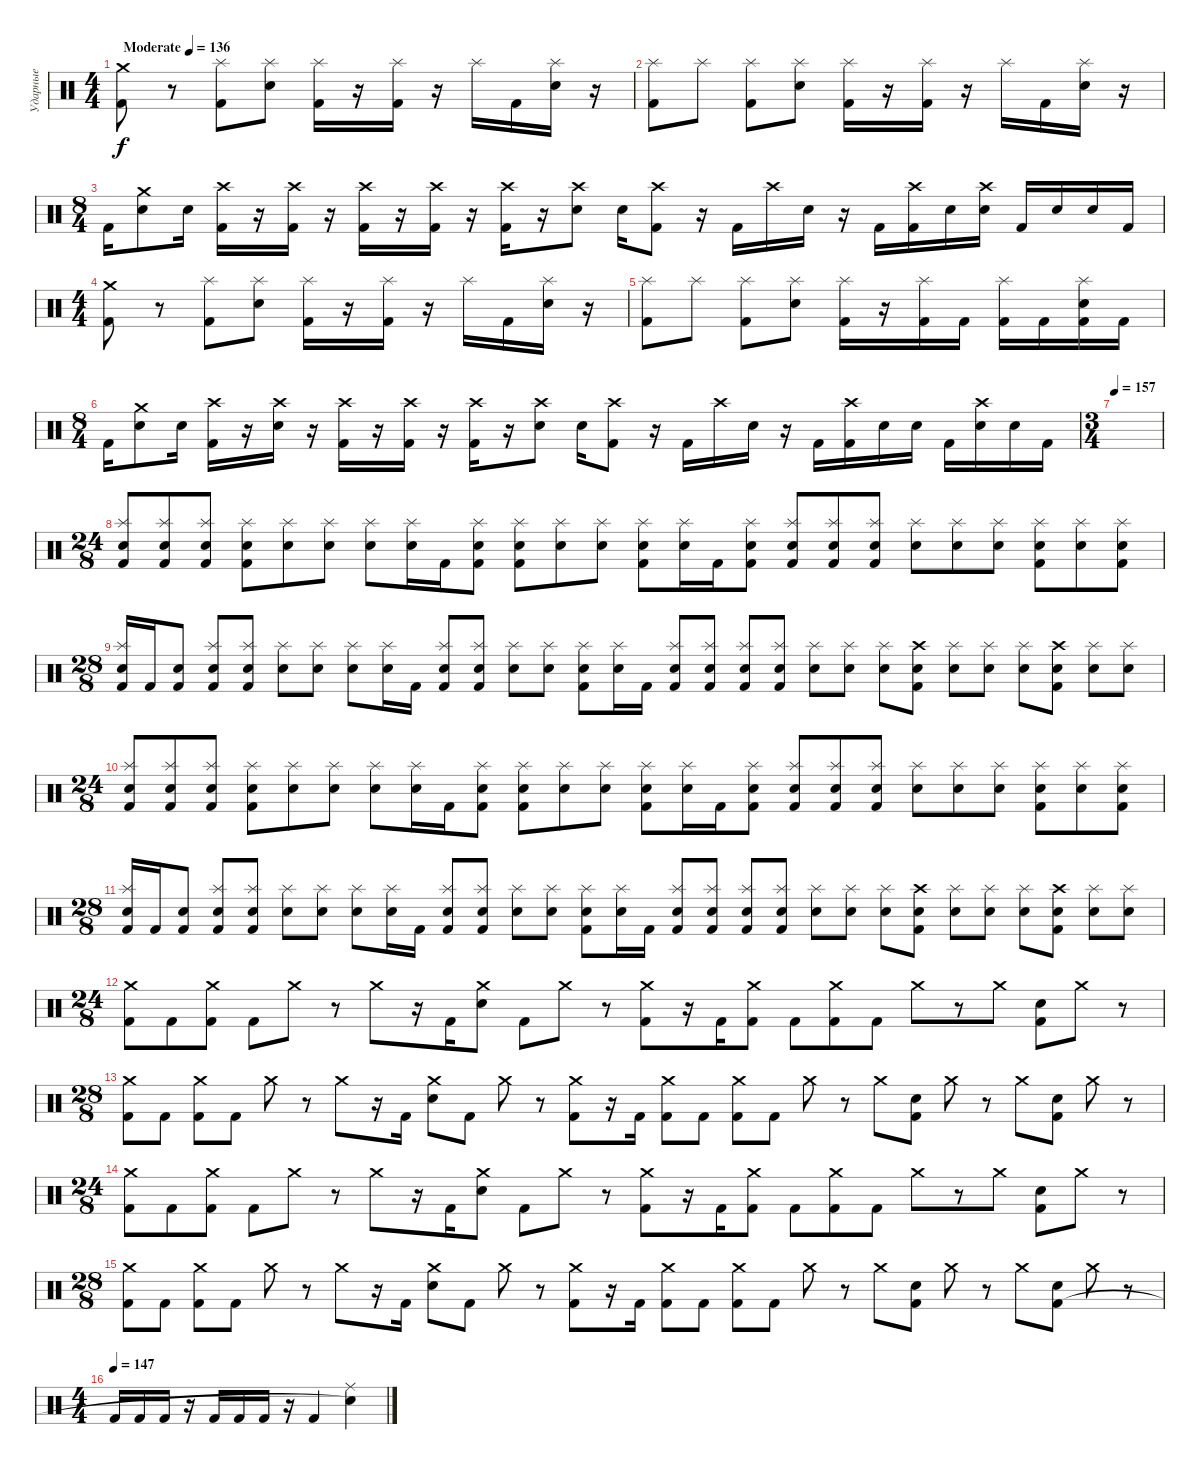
\track ("Ударные" "Ударные") {instrument percussion}
\staff {score}
\articulation defaults
\ts (4 4)
\tempo (136 "Moderate")
\clef neutral
\ks c
("Crash medium (hit)" "Kick (hit) 2").8{dy f} r.8 ("Splash (hit)" "Kick (hit) 2").8 ("Splash (hit)" "Electric Snare (hit)").8 ("Splash (hit)" "Kick (hit) 2").16 r.16 ("Splash (hit)" "Kick (hit) 2").16 r.16 "Splash (hit)".16 "Kick (hit) 2".16 ("Splash (hit)" "Electric Snare (hit)").16 r.16 |
("Splash (hit)" "Kick (hit) 2").8 "Splash (hit)".8 ("Splash (hit)" "Kick (hit) 2").8 ("Splash (hit)" "Electric Snare (hit)").8 ("Splash (hit)" "Kick (hit) 2").16 r.16 ("Splash (hit)" "Kick (hit) 2").16 r.16 "Splash (hit)".16 "Kick (hit) 2".16 ("Splash (hit)" "Electric Snare (hit)").16 r.16 |
\ts (8 4)
"Kick (hit) 2".16 ("Crash medium (hit)" "Electric Snare (hit)").8 "Electric Snare (hit)".16 ("Crash high (hit)" "Kick (hit) 2").16 r.16 ("Crash high (hit)" "Kick (hit) 2").16 r.16 ("Crash high (hit)" "Kick (hit) 2").16 r.16 ("Crash high (hit)" "Kick (hit) 2").16 r.16 ("Crash high (hit)" "Kick (hit) 2").16 r.16 ("Crash high (hit)" "Electric Snare (hit)").8 "Electric Snare (hit)".16 ("Crash high (hit)" "Kick (hit) 2").8 r.16 "Kick (hit) 2".16 "Crash high (hit)".16 "Electric Snare (hit)".16 r.16 "Kick (hit) 2".16 ("Crash high (hit)" "Kick (hit) 2").16 "Electric Snare (hit)".16 ("Crash high (hit)" "Electric Snare (hit)").16 "Kick (hit) 2".16 "Electric Snare (hit)".16 "Electric Snare (hit)".16 "Kick (hit) 2".16 |
\ts (4 4)
("Crash medium (hit)" "Kick (hit) 2").8 r.8 ("Splash (hit)" "Kick (hit) 2").8 ("Splash (hit)" "Electric Snare (hit)").8 ("Splash (hit)" "Kick (hit) 2").16 r.16 ("Splash (hit)" "Kick (hit) 2").16 r.16 "Splash (hit)".16 "Kick (hit) 2".16 ("Splash (hit)" "Electric Snare (hit)").16 r.16 |
("Splash (hit)" "Kick (hit) 2").8 "Splash (hit)".8 ("Splash (hit)" "Kick (hit) 2").8 ("Splash (hit)" "Electric Snare (hit)").8 ("Splash (hit)" "Kick (hit) 2").16 r.16 ("Splash (hit)" "Kick (hit) 2").16 "Kick (hit) 2".16 ("Splash (hit)" "Kick (hit) 2").16 "Kick (hit) 2".16 ("Splash (hit)" "Electric Snare (hit)" "Kick (hit) 2").16 "Kick (hit) 2".16 |
\ts (8 4)
"Kick (hit) 2".16 ("Crash medium (hit)" "Electric Snare (hit)").8 "Electric Snare (hit)".16 ("Crash high (hit)" "Kick (hit) 2").16 r.16 ("Crash high (hit)" "Electric Snare (hit)").16 r.16 ("Crash high (hit)" "Kick (hit) 2").16 r.16 ("Crash high (hit)" "Kick (hit) 2").16 r.16 ("Crash high (hit)" "Kick (hit) 2").16 r.16 ("Crash high (hit)" "Electric Snare (hit)").8 "Electric Snare (hit)".16 ("Crash high (hit)" "Kick (hit) 2").8 r.16 "Kick (hit) 2".16 "Crash high (hit)".16 "Electric Snare (hit)".16 r.16 "Kick (hit) 2".16 ("Crash high (hit)" "Kick (hit) 2").16 "Electric Snare (hit)".16 "Electric Snare (hit)".16 "Kick (hit) 2".16 ("Crash high (hit)" "Electric Snare (hit)").16 "Electric Snare (hit)".16 "Kick (hit) 2".16 |
\ts (3 4)
\tempo 157
|
\ts (24 8)
("Splash (hit)" "Electric Snare (hit)" "Kick (hit) 2").8 ("Splash (hit)" "Electric Snare (hit)" "Kick (hit) 2").8 ("Splash (hit)" "Electric Snare (hit)" "Kick (hit) 2").8 ("Splash (hit)" "Electric Snare (hit)" "Kick (hit) 2").8 ("Splash (hit)" "Electric Snare (hit)").8 ("Splash (hit)" "Electric Snare (hit)").8 ("Splash (hit)" "Electric Snare (hit)").8 ("Splash (hit)" "Electric Snare (hit)").16 "Kick (hit) 2".16 ("Splash (hit)" "Electric Snare (hit)" "Kick (hit) 2").8 ("Splash (hit)" "Electric Snare (hit)" "Kick (hit) 2").8 ("Splash (hit)" "Electric Snare (hit)").8 ("Splash (hit)" "Electric Snare (hit)").8 ("Splash (hit)" "Electric Snare (hit)" "Kick (hit) 2").8 ("Splash (hit)" "Electric Snare (hit)").16 "Kick (hit) 2".16 ("Splash (hit)" "Electric Snare (hit)" "Kick (hit) 2").8 ("Splash (hit)" "Electric Snare (hit)" "Kick (hit) 2").8 ("Splash (hit)" "Electric Snare (hit)" "Kick (hit) 2").8 ("Splash (hit)" "Electric Snare (hit)" "Kick (hit) 2").8 ("Splash (hit)" "Electric Snare (hit)").8 ("Splash (hit)" "Electric Snare (hit)").8 ("Splash (hit)" "Electric Snare (hit)").8 ("Splash (hit)" "Electric Snare (hit)" "Kick (hit) 2").8 ("Splash (hit)" "Electric Snare (hit)").8 ("Splash (hit)" "Electric Snare (hit)" "Kick (hit) 2").8 |
\ts (28 8)
("Splash (hit)" "Electric Snare (hit)" "Kick (hit) 2").16 "Kick (hit) 2".16 ("Electric Snare (hit)" "Kick (hit) 2").8 ("Splash (hit)" "Electric Snare (hit)" "Kick (hit) 2").8 ("Splash (hit)" "Electric Snare (hit)" "Kick (hit) 2").8 ("Splash (hit)" "Electric Snare (hit)").8 ("Splash (hit)" "Electric Snare (hit)").8 ("Splash (hit)" "Electric Snare (hit)").8 ("Splash (hit)" "Electric Snare (hit)").16 "Kick (hit) 2".16 ("Splash (hit)" "Electric Snare (hit)" "Kick (hit) 2").8 ("Splash (hit)" "Electric Snare (hit)" "Kick (hit) 2").8 ("Splash (hit)" "Electric Snare (hit)").8 ("Splash (hit)" "Electric Snare (hit)").8 ("Splash (hit)" "Electric Snare (hit)" "Kick (hit) 2").8 ("Splash (hit)" "Electric Snare (hit)").16 "Kick (hit) 2".16 ("Splash (hit)" "Electric Snare (hit)" "Kick (hit) 2").8 ("Splash (hit)" "Electric Snare (hit)" "Kick (hit) 2").8 ("Splash (hit)" "Electric Snare (hit)" "Kick (hit) 2").8 ("Splash (hit)" "Electric Snare (hit)" "Kick (hit) 2").8 ("Splash (hit)" "Electric Snare (hit)").8 ("Splash (hit)" "Electric Snare (hit)").8 ("Splash (hit)" "Electric Snare (hit)").8 ("Crash high (hit)" "Electric Snare (hit)" "Kick (hit) 2").8 ("Splash (hit)" "Electric Snare (hit)").8 ("Splash (hit)" "Electric Snare (hit)").8 ("Splash (hit)" "Electric Snare (hit)").8 ("Crash high (hit)" "Electric Snare (hit)" "Kick (hit) 2").8 ("Splash (hit)" "Electric Snare (hit)").8 ("Splash (hit)" "Electric Snare (hit)").8 |
\ts (24 8)
("Splash (hit)" "Electric Snare (hit)" "Kick (hit) 2").8 ("Splash (hit)" "Electric Snare (hit)" "Kick (hit) 2").8 ("Splash (hit)" "Electric Snare (hit)" "Kick (hit) 2").8 ("Splash (hit)" "Electric Snare (hit)" "Kick (hit) 2").8 ("Splash (hit)" "Electric Snare (hit)").8 ("Splash (hit)" "Electric Snare (hit)").8 ("Splash (hit)" "Electric Snare (hit)").8 ("Splash (hit)" "Electric Snare (hit)").16 "Kick (hit) 2".16 ("Splash (hit)" "Electric Snare (hit)" "Kick (hit) 2").8 ("Splash (hit)" "Electric Snare (hit)" "Kick (hit) 2").8 ("Splash (hit)" "Electric Snare (hit)").8 ("Splash (hit)" "Electric Snare (hit)").8 ("Splash (hit)" "Electric Snare (hit)" "Kick (hit) 2").8 ("Splash (hit)" "Electric Snare (hit)").16 "Kick (hit) 2".16 ("Splash (hit)" "Electric Snare (hit)" "Kick (hit) 2").8 ("Splash (hit)" "Electric Snare (hit)" "Kick (hit) 2").8 ("Splash (hit)" "Electric Snare (hit)" "Kick (hit) 2").8 ("Splash (hit)" "Electric Snare (hit)" "Kick (hit) 2").8 ("Splash (hit)" "Electric Snare (hit)").8 ("Splash (hit)" "Electric Snare (hit)").8 ("Splash (hit)" "Electric Snare (hit)").8 ("Splash (hit)" "Electric Snare (hit)" "Kick (hit) 2").8 ("Splash (hit)" "Electric Snare (hit)").8 ("Splash (hit)" "Electric Snare (hit)" "Kick (hit) 2").8 |
\ts (28 8)
("Splash (hit)" "Electric Snare (hit)" "Kick (hit) 2").16 "Kick (hit) 2".16 ("Electric Snare (hit)" "Kick (hit) 2").8 ("Splash (hit)" "Electric Snare (hit)" "Kick (hit) 2").8 ("Splash (hit)" "Electric Snare (hit)" "Kick (hit) 2").8 ("Splash (hit)" "Electric Snare (hit)").8 ("Splash (hit)" "Electric Snare (hit)").8 ("Splash (hit)" "Electric Snare (hit)").8 ("Splash (hit)" "Electric Snare (hit)").16 "Kick (hit) 2".16 ("Splash (hit)" "Electric Snare (hit)" "Kick (hit) 2").8 ("Splash (hit)" "Electric Snare (hit)" "Kick (hit) 2").8 ("Splash (hit)" "Electric Snare (hit)").8 ("Splash (hit)" "Electric Snare (hit)").8 ("Splash (hit)" "Electric Snare (hit)" "Kick (hit) 2").8 ("Splash (hit)" "Electric Snare (hit)").16 "Kick (hit) 2".16 ("Splash (hit)" "Electric Snare (hit)" "Kick (hit) 2").8 ("Splash (hit)" "Electric Snare (hit)" "Kick (hit) 2").8 ("Splash (hit)" "Electric Snare (hit)" "Kick (hit) 2").8 ("Splash (hit)" "Electric Snare (hit)" "Kick (hit) 2").8 ("Splash (hit)" "Electric Snare (hit)").8 ("Splash (hit)" "Electric Snare (hit)").8 ("Splash (hit)" "Electric Snare (hit)").8 ("Crash high (hit)" "Electric Snare (hit)" "Kick (hit) 2").8 ("Splash (hit)" "Electric Snare (hit)").8 ("Splash (hit)" "Electric Snare (hit)").8 ("Splash (hit)" "Electric Snare (hit)").8 ("Crash high (hit)" "Electric Snare (hit)" "Kick (hit) 2").8 ("Splash (hit)" "Electric Snare (hit)").8 ("Splash (hit)" "Electric Snare (hit)").8 |
\ts (24 8)
("Crash medium (hit)" "Kick (hit) 2").8 "Kick (hit) 2".8 ("Crash medium (hit)" "Kick (hit) 2").8 "Kick (hit) 2".8 "Crash medium (hit)".8 r.8 "Crash medium (hit)".8 r.16 "Kick (hit) 2".16 ("Crash medium (hit)" "Electric Snare (hit)").8 "Kick (hit) 2".8 "Crash medium (hit)".8 r.8 ("Crash medium (hit)" "Kick (hit) 2").8 r.16 "Kick (hit) 2".16 ("Crash medium (hit)" "Kick (hit) 2").8 "Kick (hit) 2".8 ("Crash medium (hit)" "Kick (hit) 2").8 "Kick (hit) 2".8 "Crash medium (hit)".8 r.8 "Crash medium (hit)".8 ("Electric Snare (hit)" "Kick (hit) 2").8 "Crash medium (hit)".8 r.8 |
\ts (28 8)
("Crash medium (hit)" "Kick (hit) 2").8 "Kick (hit) 2".8 ("Crash medium (hit)" "Kick (hit) 2").8 "Kick (hit) 2".8 "Crash medium (hit)".8 r.8 "Crash medium (hit)".8 r.16 "Kick (hit) 2".16 ("Crash medium (hit)" "Electric Snare (hit)").8 "Kick (hit) 2".8 "Crash medium (hit)".8 r.8 ("Crash medium (hit)" "Kick (hit) 2").8 r.16 "Kick (hit) 2".16 ("Crash medium (hit)" "Kick (hit) 2").8 "Kick (hit) 2".8 ("Crash medium (hit)" "Kick (hit) 2").8 "Kick (hit) 2".8 "Crash medium (hit)".8 r.8 "Crash medium (hit)".8 ("Electric Snare (hit)" "Kick (hit) 2").8 "Crash medium (hit)".8 r.8 "Crash medium (hit)".8 ("Electric Snare (hit)" "Kick (hit) 2").8 "Crash medium (hit)".8 r.8 |
\ts (24 8)
("Crash medium (hit)" "Kick (hit) 2").8 "Kick (hit) 2".8 ("Crash medium (hit)" "Kick (hit) 2").8 "Kick (hit) 2".8 "Crash medium (hit)".8 r.8 "Crash medium (hit)".8 r.16 "Kick (hit) 2".16 ("Crash medium (hit)" "Electric Snare (hit)").8 "Kick (hit) 2".8 "Crash medium (hit)".8 r.8 ("Crash medium (hit)" "Kick (hit) 2").8 r.16 "Kick (hit) 2".16 ("Crash medium (hit)" "Kick (hit) 2").8 "Kick (hit) 2".8 ("Crash medium (hit)" "Kick (hit) 2").8 "Kick (hit) 2".8 "Crash medium (hit)".8 r.8 "Crash medium (hit)".8 ("Electric Snare (hit)" "Kick (hit) 2").8 "Crash medium (hit)".8 r.8 |
\ts (28 8)
("Crash medium (hit)" "Kick (hit) 2").8 "Kick (hit) 2".8 ("Crash medium (hit)" "Kick (hit) 2").8 "Kick (hit) 2".8 "Crash medium (hit)".8 r.8 "Crash medium (hit)".8 r.16 "Kick (hit) 2".16 ("Crash medium (hit)" "Electric Snare (hit)").8 "Kick (hit) 2".8 "Crash medium (hit)".8 r.8 ("Crash medium (hit)" "Kick (hit) 2").8 r.16 "Kick (hit) 2".16 ("Crash medium (hit)" "Kick (hit) 2").8 "Kick (hit) 2".8 ("Crash medium (hit)" "Kick (hit) 2").8 "Kick (hit) 2".8 "Crash medium (hit)".8 r.8 "Crash medium (hit)".8 ("Electric Snare (hit)" "Kick (hit) 2").8 "Crash medium (hit)".8 r.8 "Crash medium (hit)".8 ("Electric Snare (hit)" "Kick (hit) 2").8 "Crash medium (hit)".8 r.8 |
\ts (4 4)
\tempo (147)
"Kick (hit) 2".16 "Kick (hit) 2".16 "Kick (hit) 2".16 r.16 "Kick (hit) 2".16 "Kick (hit) 2".16 "Kick (hit) 2".16 r.16 "Kick (hit) 2".4 ("Ride (middle)" "Snare (hit)"{t}).4
